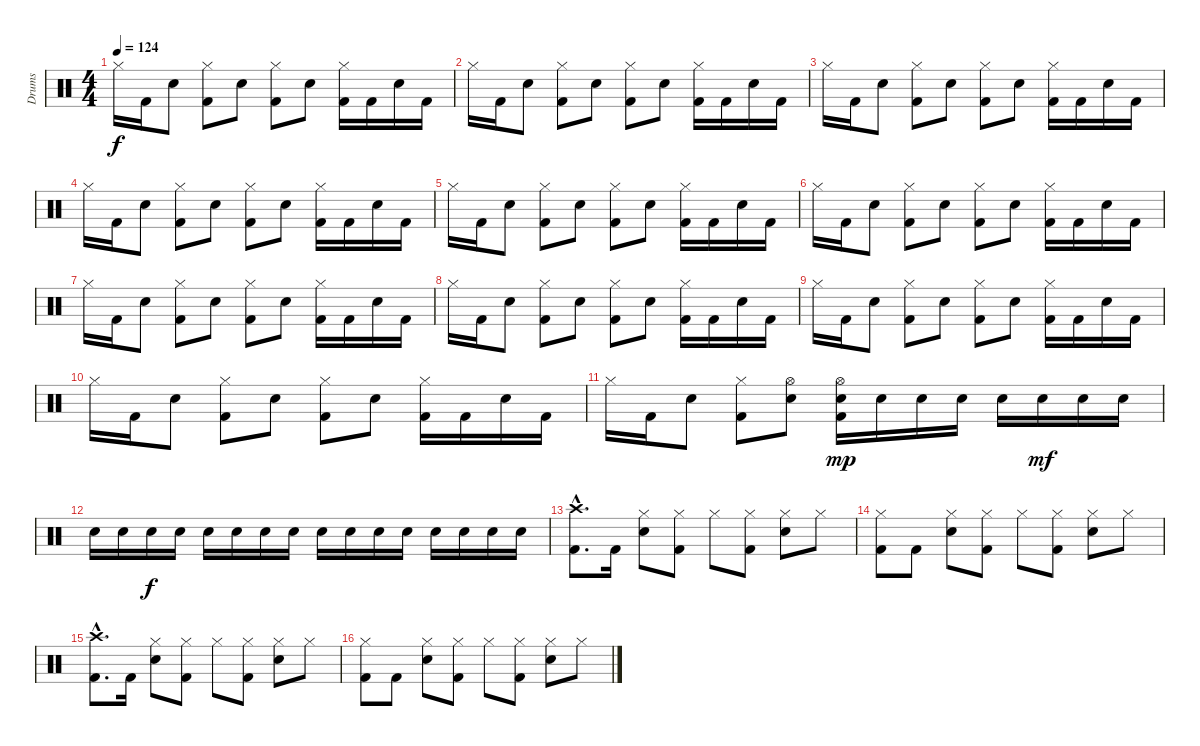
\track ("Drums" "Drums") {instrument percussion}
\staff {score}
\articulation defaults
\ts (4 4)
\tempo 124
\clef neutral
\ks c "Hi-Hat (closed)".16{dy f} "Kick (hit) 2".16 "Electric Snare (hit)".8
("Hi-Hat (closed)" "Kick (hit) 2").8 "Electric Snare (hit)".8 ("Hi-Hat (closed)" "Kick (hit) 2").8 "Electric Snare (hit)".8 ("Hi-Hat (closed)" "Kick (hit) 2").16 "Kick (hit) 2".16 "Electric Snare (hit)".16 "Kick (hit) 2".16 |
"Hi-Hat (closed)".16 "Kick (hit) 2".16 "Electric Snare (hit)".8 ("Hi-Hat (closed)" "Kick (hit) 2").8 "Electric Snare (hit)".8 ("Hi-Hat (closed)" "Kick (hit) 2").8 "Electric Snare (hit)".8 ("Hi-Hat (closed)" "Kick (hit) 2").16 "Kick (hit) 2".16 "Electric Snare (hit)".16 "Kick (hit) 2".16 |
"Hi-Hat (closed)".16 "Kick (hit) 2".16 "Electric Snare (hit)".8 ("Hi-Hat (closed)" "Kick (hit) 2").8 "Electric Snare (hit)".8 ("Hi-Hat (closed)" "Kick (hit) 2").8 "Electric Snare (hit)".8 ("Hi-Hat (closed)" "Kick (hit) 2").16 "Kick (hit) 2".16 "Electric Snare (hit)".16 "Kick (hit) 2".16 |
"Hi-Hat (closed)".16 "Kick (hit) 2".16 "Electric Snare (hit)".8 ("Hi-Hat (closed)" "Kick (hit) 2").8 "Electric Snare (hit)".8 ("Hi-Hat (closed)" "Kick (hit) 2").8 "Electric Snare (hit)".8 ("Hi-Hat (closed)" "Kick (hit) 2").16 "Kick (hit) 2".16 "Electric Snare (hit)".16 "Kick (hit) 2".16 |
"Hi-Hat (closed)".16 "Kick (hit) 2".16 "Electric Snare (hit)".8 ("Hi-Hat (closed)" "Kick (hit) 2").8 "Electric Snare (hit)".8 ("Hi-Hat (closed)" "Kick (hit) 2").8 "Electric Snare (hit)".8 ("Hi-Hat (closed)" "Kick (hit) 2").16 "Kick (hit) 2".16 "Electric Snare (hit)".16 "Kick (hit) 2".16 |
"Hi-Hat (closed)".16 "Kick (hit) 2".16 "Electric Snare (hit)".8 ("Hi-Hat (closed)" "Kick (hit) 2").8 "Electric Snare (hit)".8 ("Hi-Hat (closed)" "Kick (hit) 2").8 "Electric Snare (hit)".8 ("Hi-Hat (closed)" "Kick (hit) 2").16 "Kick (hit) 2".16 "Electric Snare (hit)".16 "Kick (hit) 2".16 |
"Hi-Hat (closed)".16 "Kick (hit) 2".16 "Electric Snare (hit)".8 ("Hi-Hat (closed)" "Kick (hit) 2").8 "Electric Snare (hit)".8 ("Hi-Hat (closed)" "Kick (hit) 2").8 "Electric Snare (hit)".8 ("Hi-Hat (closed)" "Kick (hit) 2").16 "Kick (hit) 2".16 "Electric Snare (hit)".16 "Kick (hit) 2".16 |
"Hi-Hat (closed)".16 "Kick (hit) 2".16 "Electric Snare (hit)".8 ("Hi-Hat (closed)" "Kick (hit) 2").8 "Electric Snare (hit)".8 ("Hi-Hat (closed)" "Kick (hit) 2").8 "Electric Snare (hit)".8 ("Hi-Hat (closed)" "Kick (hit) 2").16 "Kick (hit) 2".16 "Electric Snare (hit)".16 "Kick (hit) 2".16 |
"Hi-Hat (closed)".16 "Kick (hit) 2".16 "Electric Snare (hit)".8 ("Hi-Hat (closed)" "Kick (hit) 2").8 "Electric Snare (hit)".8 ("Hi-Hat (closed)" "Kick (hit) 2").8 "Electric Snare (hit)".8 ("Hi-Hat (closed)" "Kick (hit) 2").16 "Kick (hit) 2".16 "Electric Snare (hit)".16 "Kick (hit) 2".16 |
"Hi-Hat (closed)".16 "Kick (hit) 2".16 "Electric Snare (hit)".8 ("Hi-Hat (closed)" "Kick (hit) 2").8 "Electric Snare (hit)".8 ("Hi-Hat (closed)" "Kick (hit) 2").8 "Electric Snare (hit)".8 ("Hi-Hat (closed)" "Kick (hit) 2").16 "Kick (hit) 2".16 "Electric Snare (hit)".16 "Kick (hit) 2".16 |
"Hi-Hat (closed)".16 "Kick (hit) 2".16 "Electric Snare (hit)".8 ("Hi-Hat (closed)" "Kick (hit) 2").8 ("Hi-Hat (open)" "Electric Snare (hit)").8 ("Hi-Hat (open)" "Electric Snare (hit)" "Kick (hit) 2").16{dy mp} "Electric Snare (hit)".16 "Electric Snare (hit)".16 "Electric Snare (hit)".16 "Electric Snare (hit)".16 "Electric Snare (hit)".16{dy mf} "Electric Snare (hit)".16 "Electric Snare (hit)".16 |
"Electric Snare (hit)".16 "Electric Snare (hit)".16 "Electric Snare (hit)".16{dy f} "Electric Snare (hit)".16 "Electric Snare (hit)".16 "Electric Snare (hit)".16 "Electric Snare (hit)".16 "Electric Snare (hit)".16 "Electric Snare (hit)".16 "Electric Snare (hit)".16 "Electric Snare (hit)".16 "Electric Snare (hit)".16 "Electric Snare (hit)".16 "Electric Snare (hit)".16 "Electric Snare (hit)".16 "Electric Snare (hit)".16 |
("Crash high (hit)"{hac} "Kick (hit) 2"{hac}).8{d} "Kick (hit) 2".16 ("Hi-Hat (closed)" "Electric Snare (hit)").8 ("Hi-Hat (closed)" "Kick (hit) 2").8 "Hi-Hat (closed)".8 ("Hi-Hat (closed)" "Kick (hit) 2").8 ("Hi-Hat (closed)" "Electric Snare (hit)").8 "Hi-Hat (closed)".8 |
("Hi-Hat (closed)" "Kick (hit) 2").8 "Kick (hit) 2".8 ("Hi-Hat (closed)" "Electric Snare (hit)").8 ("Hi-Hat (closed)" "Kick (hit) 2").8 "Hi-Hat (closed)".8 ("Hi-Hat (closed)" "Kick (hit) 2").8 ("Hi-Hat (closed)" "Electric Snare (hit)").8 "Hi-Hat (closed)".8 |
("Crash high (hit)"{hac} "Kick (hit) 2"{hac}).8{d} "Kick (hit) 2".16 ("Hi-Hat (closed)" "Electric Snare (hit)").8 ("Hi-Hat (closed)" "Kick (hit) 2").8 "Hi-Hat (closed)".8 ("Hi-Hat (closed)" "Kick (hit) 2").8 ("Hi-Hat (closed)" "Electric Snare (hit)").8 "Hi-Hat (closed)".8 |
("Hi-Hat (closed)" "Kick (hit) 2").8 "Kick (hit) 2".8 ("Hi-Hat (closed)" "Electric Snare (hit)").8 ("Hi-Hat (closed)" "Kick (hit) 2").8 "Hi-Hat (closed)".8 ("Hi-Hat (closed)" "Kick (hit) 2").8 ("Hi-Hat (closed)" "Electric Snare (hit)").8 "Hi-Hat (closed)".8
